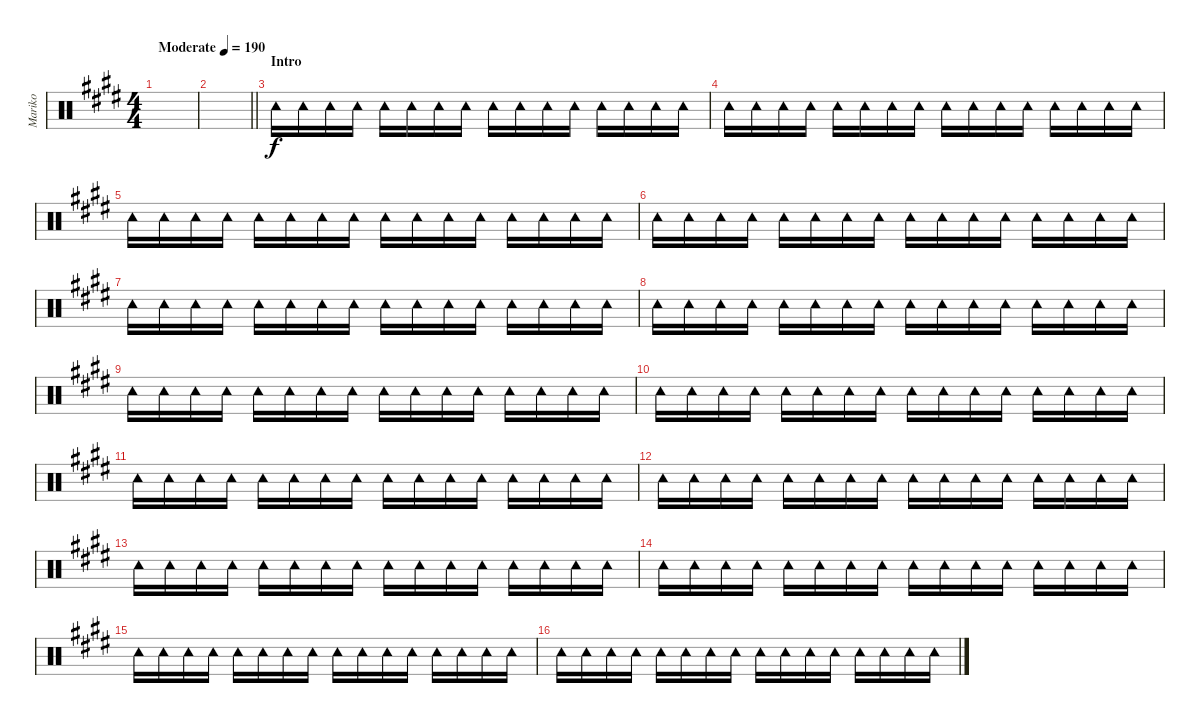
\track ("Mariko" "Mariko") {mute instrument percussion}
\staff {score}
\articulation defaults
\ts (4 4)
\tempo (190 "Moderate")
\clef neutral
\ks e
|
\barLineRight lightlight
|
\section ("" "Intro")
"Tambourine (hit)".16 "Tambourine (hit)".16 "Tambourine (hit)".16 "Tambourine (hit)".16 "Tambourine (hit)".16 "Tambourine (hit)".16 "Tambourine (hit)".16 "Tambourine (hit)".16 "Tambourine (hit)".16 "Tambourine (hit)".16 "Tambourine (hit)".16 "Tambourine (hit)".16 "Tambourine (hit)".16 "Tambourine (hit)".16 "Tambourine (hit)".16 "Tambourine (hit)".16 |
"Tambourine (hit)".16 "Tambourine (hit)".16 "Tambourine (hit)".16 "Tambourine (hit)".16 "Tambourine (hit)".16 "Tambourine (hit)".16 "Tambourine (hit)".16 "Tambourine (hit)".16 "Tambourine (hit)".16 "Tambourine (hit)".16 "Tambourine (hit)".16 "Tambourine (hit)".16 "Tambourine (hit)".16 "Tambourine (hit)".16 "Tambourine (hit)".16 "Tambourine (hit)".16 |
"Tambourine (hit)".16 "Tambourine (hit)".16 "Tambourine (hit)".16 "Tambourine (hit)".16 "Tambourine (hit)".16 "Tambourine (hit)".16 "Tambourine (hit)".16 "Tambourine (hit)".16 "Tambourine (hit)".16 "Tambourine (hit)".16 "Tambourine (hit)".16 "Tambourine (hit)".16 "Tambourine (hit)".16 "Tambourine (hit)".16 "Tambourine (hit)".16 "Tambourine (hit)".16 |
"Tambourine (hit)".16 "Tambourine (hit)".16 "Tambourine (hit)".16 "Tambourine (hit)".16 "Tambourine (hit)".16 "Tambourine (hit)".16 "Tambourine (hit)".16 "Tambourine (hit)".16 "Tambourine (hit)".16 "Tambourine (hit)".16 "Tambourine (hit)".16 "Tambourine (hit)".16 "Tambourine (hit)".16 "Tambourine (hit)".16 "Tambourine (hit)".16 "Tambourine (hit)".16 |
"Tambourine (hit)".16 "Tambourine (hit)".16 "Tambourine (hit)".16 "Tambourine (hit)".16 "Tambourine (hit)".16 "Tambourine (hit)".16 "Tambourine (hit)".16 "Tambourine (hit)".16 "Tambourine (hit)".16 "Tambourine (hit)".16 "Tambourine (hit)".16 "Tambourine (hit)".16 "Tambourine (hit)".16 "Tambourine (hit)".16 "Tambourine (hit)".16 "Tambourine (hit)".16 |
"Tambourine (hit)".16 "Tambourine (hit)".16 "Tambourine (hit)".16 "Tambourine (hit)".16 "Tambourine (hit)".16 "Tambourine (hit)".16 "Tambourine (hit)".16 "Tambourine (hit)".16 "Tambourine (hit)".16 "Tambourine (hit)".16 "Tambourine (hit)".16 "Tambourine (hit)".16 "Tambourine (hit)".16 "Tambourine (hit)".16 "Tambourine (hit)".16 "Tambourine (hit)".16 |
"Tambourine (hit)".16 "Tambourine (hit)".16 "Tambourine (hit)".16 "Tambourine (hit)".16 "Tambourine (hit)".16 "Tambourine (hit)".16 "Tambourine (hit)".16 "Tambourine (hit)".16 "Tambourine (hit)".16 "Tambourine (hit)".16 "Tambourine (hit)".16 "Tambourine (hit)".16 "Tambourine (hit)".16 "Tambourine (hit)".16 "Tambourine (hit)".16 "Tambourine (hit)".16 |
"Tambourine (hit)".16 "Tambourine (hit)".16 "Tambourine (hit)".16 "Tambourine (hit)".16 "Tambourine (hit)".16 "Tambourine (hit)".16 "Tambourine (hit)".16 "Tambourine (hit)".16 "Tambourine (hit)".16 "Tambourine (hit)".16 "Tambourine (hit)".16 "Tambourine (hit)".16 "Tambourine (hit)".16 "Tambourine (hit)".16 "Tambourine (hit)".16 "Tambourine (hit)".16 |
"Tambourine (hit)".16 "Tambourine (hit)".16 "Tambourine (hit)".16 "Tambourine (hit)".16 "Tambourine (hit)".16 "Tambourine (hit)".16 "Tambourine (hit)".16 "Tambourine (hit)".16 "Tambourine (hit)".16 "Tambourine (hit)".16 "Tambourine (hit)".16 "Tambourine (hit)".16 "Tambourine (hit)".16 "Tambourine (hit)".16 "Tambourine (hit)".16 "Tambourine (hit)".16 |
"Tambourine (hit)".16 "Tambourine (hit)".16 "Tambourine (hit)".16 "Tambourine (hit)".16 "Tambourine (hit)".16 "Tambourine (hit)".16 "Tambourine (hit)".16 "Tambourine (hit)".16 "Tambourine (hit)".16 "Tambourine (hit)".16 "Tambourine (hit)".16 "Tambourine (hit)".16 "Tambourine (hit)".16 "Tambourine (hit)".16 "Tambourine (hit)".16 "Tambourine (hit)".16 |
"Tambourine (hit)".16 "Tambourine (hit)".16 "Tambourine (hit)".16 "Tambourine (hit)".16 "Tambourine (hit)".16 "Tambourine (hit)".16 "Tambourine (hit)".16 "Tambourine (hit)".16 "Tambourine (hit)".16 "Tambourine (hit)".16 "Tambourine (hit)".16 "Tambourine (hit)".16 "Tambourine (hit)".16 "Tambourine (hit)".16 "Tambourine (hit)".16 "Tambourine (hit)".16 |
"Tambourine (hit)".16 "Tambourine (hit)".16 "Tambourine (hit)".16 "Tambourine (hit)".16 "Tambourine (hit)".16 "Tambourine (hit)".16 "Tambourine (hit)".16 "Tambourine (hit)".16 "Tambourine (hit)".16 "Tambourine (hit)".16 "Tambourine (hit)".16 "Tambourine (hit)".16 "Tambourine (hit)".16 "Tambourine (hit)".16 "Tambourine (hit)".16 "Tambourine (hit)".16 |
"Tambourine (hit)".16 "Tambourine (hit)".16 "Tambourine (hit)".16 "Tambourine (hit)".16 "Tambourine (hit)".16 "Tambourine (hit)".16 "Tambourine (hit)".16 "Tambourine (hit)".16 "Tambourine (hit)".16 "Tambourine (hit)".16 "Tambourine (hit)".16 "Tambourine (hit)".16 "Tambourine (hit)".16 "Tambourine (hit)".16 "Tambourine (hit)".16 "Tambourine (hit)".16 |
"Tambourine (hit)".16 "Tambourine (hit)".16 "Tambourine (hit)".16 "Tambourine (hit)".16 "Tambourine (hit)".16 "Tambourine (hit)".16 "Tambourine (hit)".16 "Tambourine (hit)".16 "Tambourine (hit)".16 "Tambourine (hit)".16 "Tambourine (hit)".16 "Tambourine (hit)".16 "Tambourine (hit)".16 "Tambourine (hit)".16 "Tambourine (hit)".16 "Tambourine (hit)".16
